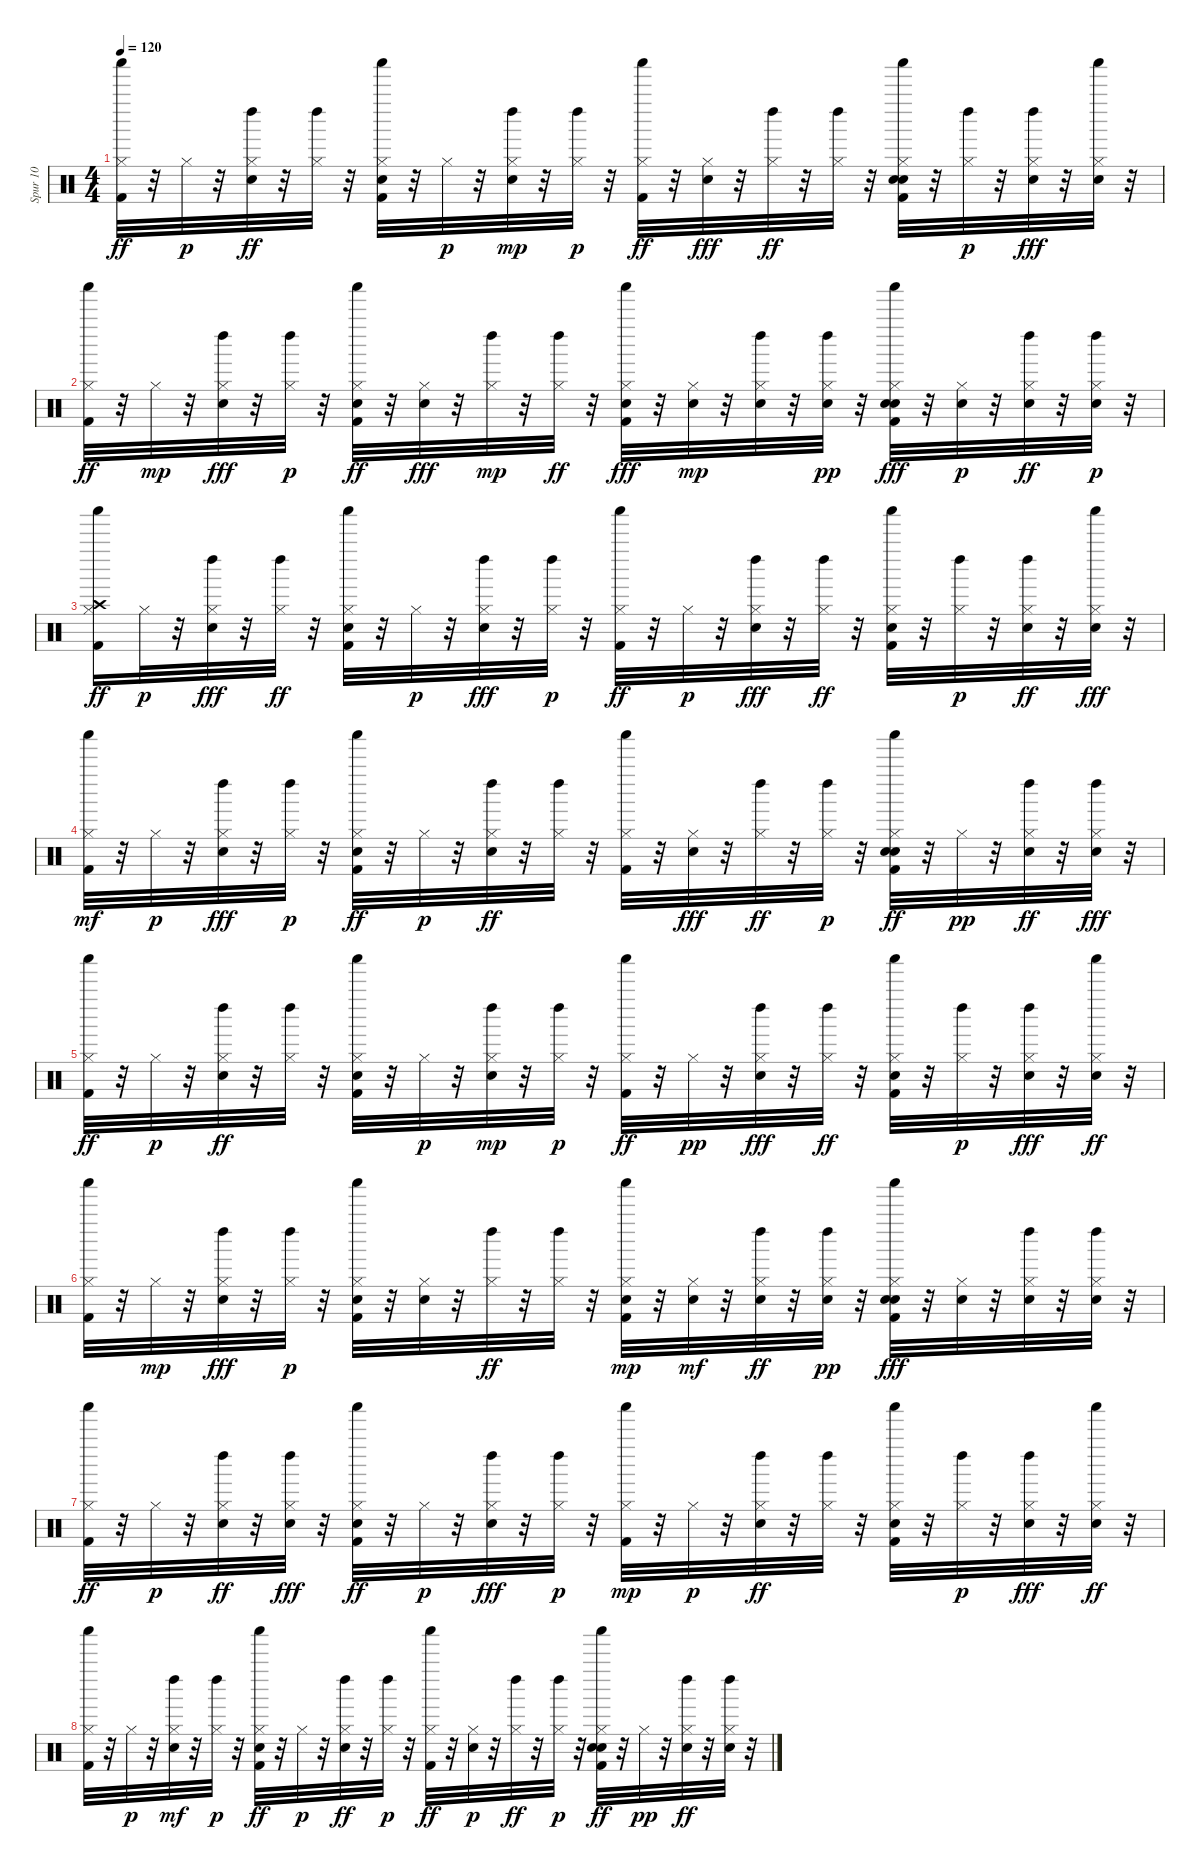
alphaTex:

\track ("Spur 10" "Spur 10") {instrument percussion}
\staff {score}
\articulation defaults
\ts (4 4)
\tempo 120
\clef neutral
\ks c
("Shaker (hit)" "Kick (hit) 2" "Hi-Hat (closed)").32{dy ff} r.32 "Hi-Hat (closed)".32{dy p} r.32 ("Electric Snare (hit)" "Hi-Hat (closed)" "Left Maraca (hit)").32{dy ff} r.32 ("Hi-Hat (closed)" "Left Maraca (hit)").32 r.32 ("Kick (hit) 2" "Shaker (hit)" "Hi-Hat (closed)" "Snare (hit) 2").32 r.32 "Hi-Hat (closed)".32{dy p} r.32 ("Hi-Hat (closed)" "Electric Snare (hit)" "Left Maraca (hit)").32{dy mp} r.32 ("Left Maraca (hit)" "Hi-Hat (closed)").32{dy p} r.32 ("Hi-Hat (closed)" "Shaker (hit)" "Kick (hit) 2").32{dy ff} r.32 ("Hi-Hat (closed)" "Electric Snare (hit)").32{dy fff} r.32 ("Left Maraca (hit)" "Hi-Hat (closed)").32{dy ff} r.32 ("Hi-Hat (closed)" "Left Maraca (hit)").32 r.32 ("Shaker (hit)" "Electric Snare (hit)" "Hi-Hat (closed)" "Snare (hit) 2" "Kick (hit) 2").32 r.32 ("Left Maraca (hit)" "Hi-Hat (closed)").32{dy p} r.32 ("Left Maraca (hit)" "Hi-Hat (closed)" "Electric Snare (hit)").32{dy fff} r.32 ("Shaker (hit)" "Hi-Hat (closed)" "Electric Snare (hit)").32 r.32 |
("Hi-Hat (closed)" "Shaker (hit)" "Kick (hit) 2").32{dy ff} r.32 "Hi-Hat (closed)".32{dy mp} r.32 ("Hi-Hat (closed)" "Left Maraca (hit)" "Electric Snare (hit)").32{dy fff} r.32 ("Left Maraca (hit)" "Hi-Hat (closed)").32{dy p} r.32 ("Hi-Hat (closed)" "Kick (hit) 2" "Snare (hit) 2" "Shaker (hit)").32{dy ff} r.32 ("Hi-Hat (closed)" "Electric Snare (hit)").32{dy fff} r.32 ("Hi-Hat (closed)" "Left Maraca (hit)").32{dy mp} r.32 ("Hi-Hat (closed)" "Left Maraca (hit)").32{dy ff} r.32 ("Shaker (hit)" "Hi-Hat (closed)" "Kick (hit) 2" "Electric Snare (hit)").32{dy fff} r.32 ("Hi-Hat (closed)" "Electric Snare (hit)").32{dy mp} r.32 ("Hi-Hat (closed)" "Electric Snare (hit)" "Left Maraca (hit)").32 r.32 ("Left Maraca (hit)" "Electric Snare (hit)" "Hi-Hat (closed)").32{dy pp} r.32 ("Shaker (hit)" "Kick (hit) 2" "Hi-Hat (closed)" "Snare (hit) 2" "Electric Snare (hit)").32{dy fff} r.32 ("Electric Snare (hit)" "Hi-Hat (closed)").32{dy p} r.32 ("Left Maraca (hit)" "Electric Snare (hit)" "Hi-Hat (closed)").32{dy ff} r.32 ("Left Maraca (hit)" "Electric Snare (hit)" "Hi-Hat (closed)").32{dy p} r.32 |
("Hi-Hat (closed)" "Kick (hit) 2" "Shaker (hit)" "Crash high (hit)").16{dy ff} "Hi-Hat (closed)".32{dy p} r.32 ("Hi-Hat (closed)" "Left Maraca (hit)" "Electric Snare (hit)").32{dy fff} r.32 ("Hi-Hat (closed)" "Left Maraca (hit)").32{dy ff} r.32 ("Kick (hit) 2" "Hi-Hat (closed)" "Shaker (hit)" "Snare (hit) 2").32 r.32 "Hi-Hat (closed)".32{dy p} r.32 ("Left Maraca (hit)" "Hi-Hat (closed)" "Electric Snare (hit)").32{dy fff} r.32 ("Left Maraca (hit)" "Hi-Hat (closed)").32{dy p} r.32 ("Hi-Hat (closed)" "Kick (hit) 2" "Shaker (hit)").32{dy ff} r.32 "Hi-Hat (closed)".32{dy p} r.32 ("Hi-Hat (closed)" "Electric Snare (hit)" "Left Maraca (hit)").32{dy fff} r.32 ("Hi-Hat (closed)" "Left Maraca (hit)").32{dy ff} r.32 ("Snare (hit) 2" "Hi-Hat (closed)" "Kick (hit) 2" "Shaker (hit)").32 r.32 ("Hi-Hat (closed)" "Left Maraca (hit)").32{dy p} r.32 ("Electric Snare (hit)" "Left Maraca (hit)" "Hi-Hat (closed)").32{dy ff} r.32 ("Shaker (hit)" "Hi-Hat (closed)" "Electric Snare (hit)").32{dy fff} r.32 |
("Kick (hit) 2" "Shaker (hit)" "Hi-Hat (closed)").32{dy mf} r.32 "Hi-Hat (closed)".32{dy p} r.32 ("Hi-Hat (closed)" "Left Maraca (hit)" "Electric Snare (hit)").32{dy fff} r.32 ("Hi-Hat (closed)" "Left Maraca (hit)").32{dy p} r.32 ("Hi-Hat (closed)" "Shaker (hit)" "Kick (hit) 2" "Snare (hit) 2").32{dy ff} r.32 "Hi-Hat (closed)".32{dy p} r.32 ("Electric Snare (hit)" "Left Maraca (hit)" "Hi-Hat (closed)").32{dy ff} r.32 ("Hi-Hat (closed)" "Left Maraca (hit)").32 r.32 ("Hi-Hat (closed)" "Kick (hit) 2" "Shaker (hit)").32 r.32 ("Hi-Hat (closed)" "Electric Snare (hit)").32{dy fff} r.32 ("Left Maraca (hit)" "Hi-Hat (closed)").32{dy ff} r.32 ("Hi-Hat (closed)" "Left Maraca (hit)").32{dy p} r.32 ("Shaker (hit)" "Kick (hit) 2" "Hi-Hat (closed)" "Electric Snare (hit)" "Snare (hit) 2").32{dy ff} r.32 "Hi-Hat (closed)".32{dy pp} r.32 ("Left Maraca (hit)" "Electric Snare (hit)" "Hi-Hat (closed)").32{dy ff} r.32 ("Left Maraca (hit)" "Hi-Hat (closed)" "Electric Snare (hit)").32{dy fff} r.32 |
("Hi-Hat (closed)" "Kick (hit) 2" "Shaker (hit)").32{dy ff} r.32 "Hi-Hat (closed)".32{dy p} r.32 ("Electric Snare (hit)" "Hi-Hat (closed)" "Left Maraca (hit)").32{dy ff} r.32 ("Hi-Hat (closed)" "Left Maraca (hit)").32 r.32 ("Shaker (hit)" "Kick (hit) 2" "Snare (hit) 2" "Hi-Hat (closed)").32 r.32 "Hi-Hat (closed)".32{dy p} r.32 ("Electric Snare (hit)" "Hi-Hat (closed)" "Left Maraca (hit)").32{dy mp} r.32 ("Left Maraca (hit)" "Hi-Hat (closed)").32{dy p} r.32 ("Hi-Hat (closed)" "Shaker (hit)" "Kick (hit) 2").32{dy ff} r.32 "Hi-Hat (closed)".32{dy pp} r.32 ("Hi-Hat (closed)" "Left Maraca (hit)" "Electric Snare (hit)").32{dy fff} r.32 ("Hi-Hat (closed)" "Left Maraca (hit)").32{dy ff} r.32 ("Hi-Hat (closed)" "Snare (hit) 2" "Shaker (hit)" "Kick (hit) 2").32 r.32 ("Hi-Hat (closed)" "Left Maraca (hit)").32{dy p} r.32 ("Hi-Hat (closed)" "Left Maraca (hit)" "Electric Snare (hit)").32{dy fff} r.32 ("Hi-Hat (closed)" "Shaker (hit)" "Electric Snare (hit)").32{dy ff} r.32 |
("Kick (hit) 2" "Hi-Hat (closed)" "Shaker (hit)").32 r.32 "Hi-Hat (closed)".32{dy mp} r.32 ("Left Maraca (hit)" "Hi-Hat (closed)" "Electric Snare (hit)").32{dy fff} r.32 ("Hi-Hat (closed)" "Left Maraca (hit)").32{dy p} r.32 ("Shaker (hit)" "Kick (hit) 2" "Snare (hit) 2" "Hi-Hat (closed)").32 r.32 ("Electric Snare (hit)" "Hi-Hat (closed)").32 r.32 ("Left Maraca (hit)" "Hi-Hat (closed)").32{dy ff} r.32 ("Hi-Hat (closed)" "Left Maraca (hit)").32 r.32 ("Kick (hit) 2" "Electric Snare (hit)" "Shaker (hit)" "Hi-Hat (closed)").32{dy mp} r.32 ("Hi-Hat (closed)" "Electric Snare (hit)").32{dy mf} r.32 ("Electric Snare (hit)" "Hi-Hat (closed)" "Left Maraca (hit)").32{dy ff} r.32 ("Left Maraca (hit)" "Hi-Hat (closed)" "Electric Snare (hit)").32{dy pp} r.32 ("Kick (hit) 2" "Hi-Hat (closed)" "Snare (hit) 2" "Electric Snare (hit)" "Shaker (hit)").32{dy fff} r.32 ("Hi-Hat (closed)" "Electric Snare (hit)").32 r.32 ("Hi-Hat (closed)" "Left Maraca (hit)" "Electric Snare (hit)").32 r.32 ("Hi-Hat (closed)" "Left Maraca (hit)" "Electric Snare (hit)").32 r.32 |
("Hi-Hat (closed)" "Kick (hit) 2" "Shaker (hit)").32{dy ff} r.32 "Hi-Hat (closed)".32{dy p} r.32 ("Left Maraca (hit)" "Hi-Hat (closed)" "Electric Snare (hit)").32{dy ff} r.32 ("Left Maraca (hit)" "Hi-Hat (closed)" "Electric Snare (hit)").32{dy fff} r.32 ("Snare (hit) 2" "Shaker (hit)" "Hi-Hat (closed)" "Kick (hit) 2").32{dy ff} r.32 "Hi-Hat (closed)".32{dy p} r.32 ("Left Maraca (hit)" "Hi-Hat (closed)" "Electric Snare (hit)").32{dy fff} r.32 ("Left Maraca (hit)" "Hi-Hat (closed)").32{dy p} r.32 ("Kick (hit) 2" "Hi-Hat (closed)" "Shaker (hit)").32{dy mp} r.32 "Hi-Hat (closed)".32{dy p} r.32 ("Electric Snare (hit)" "Left Maraca (hit)" "Hi-Hat (closed)").32{dy ff} r.32 ("Hi-Hat (closed)" "Left Maraca (hit)").32 r.32 ("Kick (hit) 2" "Hi-Hat (closed)" "Snare (hit) 2" "Shaker (hit)").32 r.32 ("Hi-Hat (closed)" "Left Maraca (hit)").32{dy p} r.32 ("Left Maraca (hit)" "Hi-Hat (closed)" "Electric Snare (hit)").32{dy fff} r.32 ("Hi-Hat (closed)" "Shaker (hit)" "Electric Snare (hit)").32{dy ff} r.32 |
("Hi-Hat (closed)" "Shaker (hit)" "Kick (hit) 2").32 r.32 "Hi-Hat (closed)".32{dy p} r.32 ("Electric Snare (hit)" "Hi-Hat (closed)" "Left Maraca (hit)").32{dy mf} r.32 ("Left Maraca (hit)" "Hi-Hat (closed)").32{dy p} r.32 ("Hi-Hat (closed)" "Snare (hit) 2" "Shaker (hit)" "Kick (hit) 2").32{dy ff} r.32 "Hi-Hat (closed)".32{dy p} r.32 ("Left Maraca (hit)" "Electric Snare (hit)" "Hi-Hat (closed)").32{dy ff} r.32 ("Left Maraca (hit)" "Hi-Hat (closed)").32{dy p} r.32 ("Hi-Hat (closed)" "Kick (hit) 2" "Shaker (hit)").32{dy ff} r.32 ("Electric Snare (hit)" "Hi-Hat (closed)").32{dy p} r.32 ("Left Maraca (hit)" "Hi-Hat (closed)").32{dy ff} r.32 ("Hi-Hat (closed)" "Left Maraca (hit)").32{dy p} r.32 ("Electric Snare (hit)" "Shaker (hit)" "Kick (hit) 2" "Snare (hit) 2" "Hi-Hat (closed)").32{dy ff} r.32 "Hi-Hat (closed)".32{dy pp} r.32 ("Left Maraca (hit)" "Electric Snare (hit)" "Hi-Hat (closed)").32{dy ff} r.32 ("Hi-Hat (closed)" "Left Maraca (hit)" "Electric Snare (hit)").32 r.32
